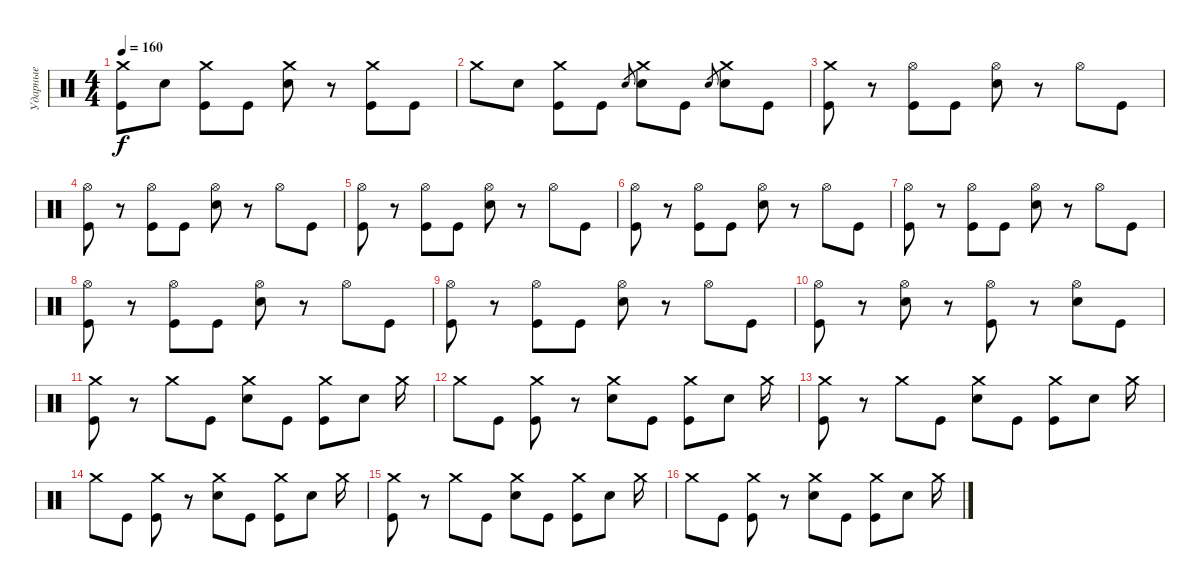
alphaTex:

\track ("Ударные" "Ударные") {instrument percussion}
\staff {score}
\articulation defaults
\ts (4 4)
\tempo 160
\clef neutral
\ks c
("Crash medium (hit)" "Kick (hit)").8{dy f} "Electric Snare (hit)".8 ("Crash medium (hit)" "Kick (hit)").8 "Kick (hit)".8 ("Crash medium (hit)" "Electric Snare (hit)").8 r.8 ("Crash medium (hit)" "Kick (hit)").8 "Kick (hit)".8 |
"Crash medium (hit)".8 "Electric Snare (hit)".8 ("Crash medium (hit)" "Kick (hit)").8 "Kick (hit)".8 "Electric Snare (hit)".8{gr} ("Crash medium (hit)" "Electric Snare (hit)").8 "Kick (hit)".8 "Electric Snare (hit)".8{gr} ("Crash medium (hit)" "Electric Snare (hit)").8 "Kick (hit)".8 |
("Crash medium (hit)" "Kick (hit)").8 r.8 ("Hi-Hat (open)" "Kick (hit)").8 "Kick (hit)".8 ("Hi-Hat (open)" "Electric Snare (hit)").8 r.8 "Hi-Hat (open)".8 "Kick (hit)".8 |
("Hi-Hat (open)" "Kick (hit)").8 r.8 ("Hi-Hat (open)" "Kick (hit)").8 "Kick (hit)".8 ("Hi-Hat (open)" "Electric Snare (hit)").8 r.8 "Hi-Hat (open)".8 "Kick (hit)".8 |
("Hi-Hat (open)" "Kick (hit)").8 r.8 ("Hi-Hat (open)" "Kick (hit)").8 "Kick (hit)".8 ("Hi-Hat (open)" "Electric Snare (hit)").8 r.8 "Hi-Hat (open)".8 "Kick (hit)".8 |
("Hi-Hat (open)" "Kick (hit)").8 r.8 ("Hi-Hat (open)" "Kick (hit)").8 "Kick (hit)".8 ("Hi-Hat (open)" "Electric Snare (hit)").8 r.8 "Hi-Hat (open)".8 "Kick (hit)".8 |
("Hi-Hat (open)" "Kick (hit)").8 r.8 ("Hi-Hat (open)" "Kick (hit)").8 "Kick (hit)".8 ("Hi-Hat (open)" "Electric Snare (hit)").8 r.8 "Hi-Hat (open)".8 "Kick (hit)".8 |
("Hi-Hat (open)" "Kick (hit)").8 r.8 ("Hi-Hat (open)" "Kick (hit)").8 "Kick (hit)".8 ("Hi-Hat (open)" "Electric Snare (hit)").8 r.8 "Hi-Hat (open)".8 "Kick (hit)".8 |
("Hi-Hat (open)" "Kick (hit)").8 r.8 ("Hi-Hat (open)" "Kick (hit)").8 "Kick (hit)".8 ("Hi-Hat (open)" "Electric Snare (hit)").8 r.8 "Hi-Hat (open)".8 "Kick (hit)".8 |
("Hi-Hat (open)" "Kick (hit)").8 r.8 ("Hi-Hat (open)" "Electric Snare (hit)").8 r.8 ("Hi-Hat (open)" "Kick (hit)").8 r.8 ("Hi-Hat (open)" "Electric Snare (hit)").8 "Kick (hit)".8 |
("Crash medium (hit)" "Kick (hit)").8 r.8 "Crash medium (hit)".8 "Kick (hit)".8 ("Crash medium (hit)" "Electric Snare (hit)").8 "Kick (hit)".8 ("Crash medium (hit)" "Kick (hit)").8 "Electric Snare (hit)".8 "Crash medium (hit)".16 |
"Crash medium (hit)".8 "Kick (hit)".8 ("Crash medium (hit)" "Kick (hit)").8 r.8 ("Crash medium (hit)" "Electric Snare (hit)").8 "Kick (hit)".8 ("Crash medium (hit)" "Kick (hit)").8 "Electric Snare (hit)".8 "Crash medium (hit)".16 |
("Crash medium (hit)" "Kick (hit)").8 r.8 "Crash medium (hit)".8 "Kick (hit)".8 ("Crash medium (hit)" "Electric Snare (hit)").8 "Kick (hit)".8 ("Crash medium (hit)" "Kick (hit)").8 "Electric Snare (hit)".8 "Crash medium (hit)".16 |
"Crash medium (hit)".8 "Kick (hit)".8 ("Crash medium (hit)" "Kick (hit)").8 r.8 ("Crash medium (hit)" "Electric Snare (hit)").8 "Kick (hit)".8 ("Crash medium (hit)" "Kick (hit)").8 "Electric Snare (hit)".8 "Crash medium (hit)".16 |
("Crash medium (hit)" "Kick (hit)").8 r.8 "Crash medium (hit)".8 "Kick (hit)".8 ("Crash medium (hit)" "Electric Snare (hit)").8 "Kick (hit)".8 ("Crash medium (hit)" "Kick (hit)").8 "Electric Snare (hit)".8 "Crash medium (hit)".16 |
"Crash medium (hit)".8 "Kick (hit)".8 ("Crash medium (hit)" "Kick (hit)").8 r.8 ("Crash medium (hit)" "Electric Snare (hit)").8 "Kick (hit)".8 ("Crash medium (hit)" "Kick (hit)").8 "Electric Snare (hit)".8 "Crash medium (hit)".16
